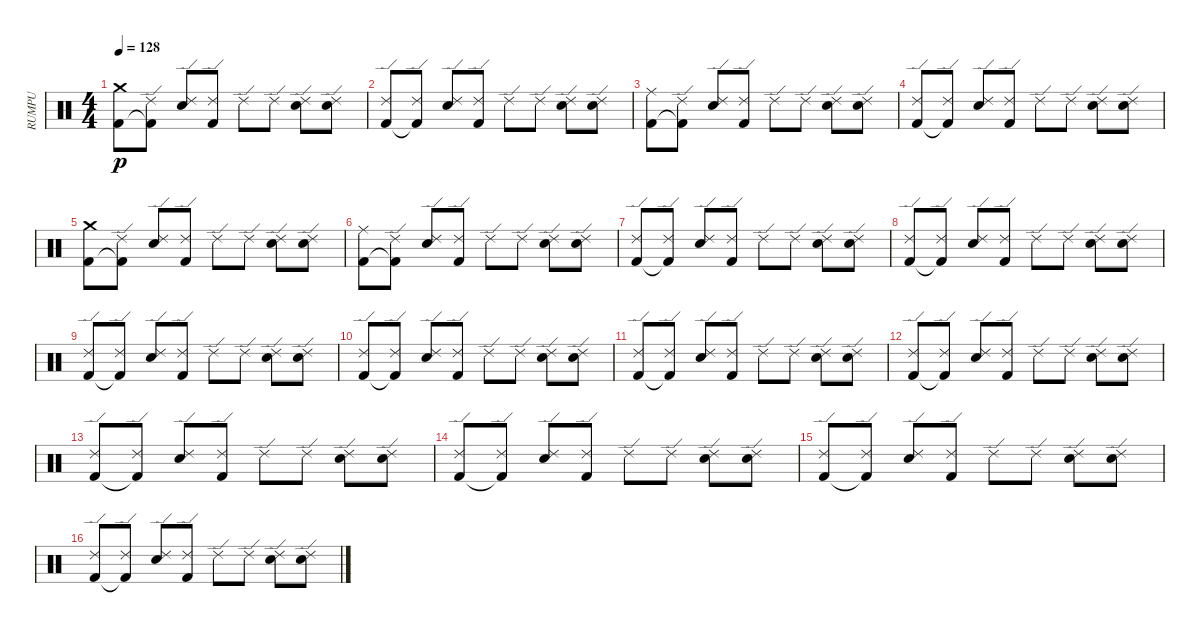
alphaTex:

\track ("RUMPU" "RUMPU") {instrument percussion}
\staff {score}
\articulation defaults
\ts (4 4)
\tempo 128
\clef neutral
\ks c
("Crash medium (hit)" "Kick (hit) 2").8{dy p} ("Ride (edge) 2" "Kick (hit) 2"{t}).8 ("Ride (edge) 2" "Electric Snare (hit)").8 ("Ride (edge) 2" "Kick (hit) 2").8 "Ride (edge) 2".8 "Ride (edge) 2".8 ("Ride (edge) 2" "Electric Snare (hit)").8 ("Ride (edge) 2" "Electric Snare (hit)").8 |
("Ride (edge) 2" "Kick (hit) 2").8 ("Ride (edge) 2" "Kick (hit) 2"{t}).8 ("Ride (edge) 2" "Electric Snare (hit)").8 ("Ride (edge) 2" "Kick (hit) 2").8 "Ride (edge) 2".8 "Ride (edge) 2".8 ("Ride (edge) 2" "Electric Snare (hit)").8 ("Ride (edge) 2" "Electric Snare (hit)").8 |
("Ride (middle)" "Kick (hit) 2").8 ("Ride (edge) 2" "Kick (hit) 2"{t}).8 ("Ride (edge) 2" "Electric Snare (hit)").8 ("Ride (edge) 2" "Kick (hit) 2").8 "Ride (edge) 2".8 "Ride (edge) 2".8 ("Ride (edge) 2" "Electric Snare (hit)").8 ("Ride (edge) 2" "Electric Snare (hit)").8 |
("Ride (edge) 2" "Kick (hit) 2").8 ("Ride (edge) 2" "Kick (hit) 2"{t}).8 ("Ride (edge) 2" "Electric Snare (hit)").8 ("Ride (edge) 2" "Kick (hit) 2").8 "Ride (edge) 2".8 "Ride (edge) 2".8 ("Ride (edge) 2" "Electric Snare (hit)").8 ("Ride (edge) 2" "Electric Snare (hit)").8 |
("Crash medium (hit)" "Kick (hit) 2").8 ("Ride (edge) 2" "Kick (hit) 2"{t}).8 ("Ride (edge) 2" "Electric Snare (hit)").8 ("Ride (edge) 2" "Kick (hit) 2").8 "Ride (edge) 2".8 "Ride (edge) 2".8 ("Ride (edge) 2" "Electric Snare (hit)").8 ("Ride (edge) 2" "Electric Snare (hit)").8 |
("Ride (middle)" "Kick (hit) 2").8 ("Ride (edge) 2" "Kick (hit) 2"{t}).8 ("Ride (edge) 2" "Electric Snare (hit)").8 ("Ride (edge) 2" "Kick (hit) 2").8 "Ride (edge) 2".8 "Ride (edge) 2".8 ("Ride (edge) 2" "Electric Snare (hit)").8 ("Ride (edge) 2" "Electric Snare (hit)").8 |
("Ride (edge) 2" "Kick (hit) 2").8 ("Ride (edge) 2" "Kick (hit) 2"{t}).8 ("Ride (edge) 2" "Electric Snare (hit)").8 ("Ride (edge) 2" "Kick (hit) 2").8 "Ride (edge) 2".8 "Ride (edge) 2".8 ("Ride (edge) 2" "Electric Snare (hit)").8 ("Ride (edge) 2" "Electric Snare (hit)").8 |
("Ride (edge) 2" "Kick (hit) 2").8 ("Ride (edge) 2" "Kick (hit) 2"{t}).8 ("Ride (edge) 2" "Electric Snare (hit)").8 ("Ride (edge) 2" "Kick (hit) 2").8 "Ride (edge) 2".8 "Ride (edge) 2".8 ("Ride (edge) 2" "Electric Snare (hit)").8 ("Ride (edge) 2" "Electric Snare (hit)").8 |
("Ride (edge) 2" "Kick (hit) 2").8 ("Ride (edge) 2" "Kick (hit) 2"{t}).8 ("Ride (edge) 2" "Electric Snare (hit)").8 ("Ride (edge) 2" "Kick (hit) 2").8 "Ride (edge) 2".8 "Ride (edge) 2".8 ("Ride (edge) 2" "Electric Snare (hit)").8 ("Ride (edge) 2" "Electric Snare (hit)").8 |
("Ride (edge) 2" "Kick (hit) 2").8 ("Ride (edge) 2" "Kick (hit) 2"{t}).8 ("Ride (edge) 2" "Electric Snare (hit)").8 ("Ride (edge) 2" "Kick (hit) 2").8 "Ride (edge) 2".8 "Ride (edge) 2".8 ("Ride (edge) 2" "Electric Snare (hit)").8 ("Ride (edge) 2" "Electric Snare (hit)").8 |
("Ride (edge) 2" "Kick (hit) 2").8 ("Ride (edge) 2" "Kick (hit) 2"{t}).8 ("Ride (edge) 2" "Electric Snare (hit)").8 ("Ride (edge) 2" "Kick (hit) 2").8 "Ride (edge) 2".8 "Ride (edge) 2".8 ("Ride (edge) 2" "Electric Snare (hit)").8 ("Ride (edge) 2" "Electric Snare (hit)").8 |
("Ride (edge) 2" "Kick (hit) 2").8 ("Ride (edge) 2" "Kick (hit) 2"{t}).8 ("Ride (edge) 2" "Electric Snare (hit)").8 ("Ride (edge) 2" "Kick (hit) 2").8 "Ride (edge) 2".8 "Ride (edge) 2".8 ("Ride (edge) 2" "Electric Snare (hit)").8 ("Ride (edge) 2" "Electric Snare (hit)").8 |
("Ride (edge) 2" "Kick (hit) 2").8 ("Ride (edge) 2" "Kick (hit) 2"{t}).8 ("Ride (edge) 2" "Electric Snare (hit)").8 ("Ride (edge) 2" "Kick (hit) 2").8 "Ride (edge) 2".8 "Ride (edge) 2".8 ("Ride (edge) 2" "Electric Snare (hit)").8 ("Ride (edge) 2" "Electric Snare (hit)").8 |
("Ride (edge) 2" "Kick (hit) 2").8 ("Ride (edge) 2" "Kick (hit) 2"{t}).8 ("Ride (edge) 2" "Electric Snare (hit)").8 ("Ride (edge) 2" "Kick (hit) 2").8 "Ride (edge) 2".8 "Ride (edge) 2".8 ("Ride (edge) 2" "Electric Snare (hit)").8 ("Ride (edge) 2" "Electric Snare (hit)").8 |
("Ride (edge) 2" "Kick (hit) 2").8 ("Ride (edge) 2" "Kick (hit) 2"{t}).8 ("Ride (edge) 2" "Electric Snare (hit)").8 ("Ride (edge) 2" "Kick (hit) 2").8 "Ride (edge) 2".8 "Ride (edge) 2".8 ("Ride (edge) 2" "Electric Snare (hit)").8 ("Ride (edge) 2" "Electric Snare (hit)").8 |
("Ride (edge) 2" "Kick (hit) 2").8 ("Ride (edge) 2" "Kick (hit) 2"{t}).8 ("Ride (edge) 2" "Electric Snare (hit)").8 ("Ride (edge) 2" "Kick (hit) 2").8 "Ride (edge) 2".8 "Ride (edge) 2".8 ("Ride (edge) 2" "Electric Snare (hit)").8 ("Ride (edge) 2" "Electric Snare (hit)").8
